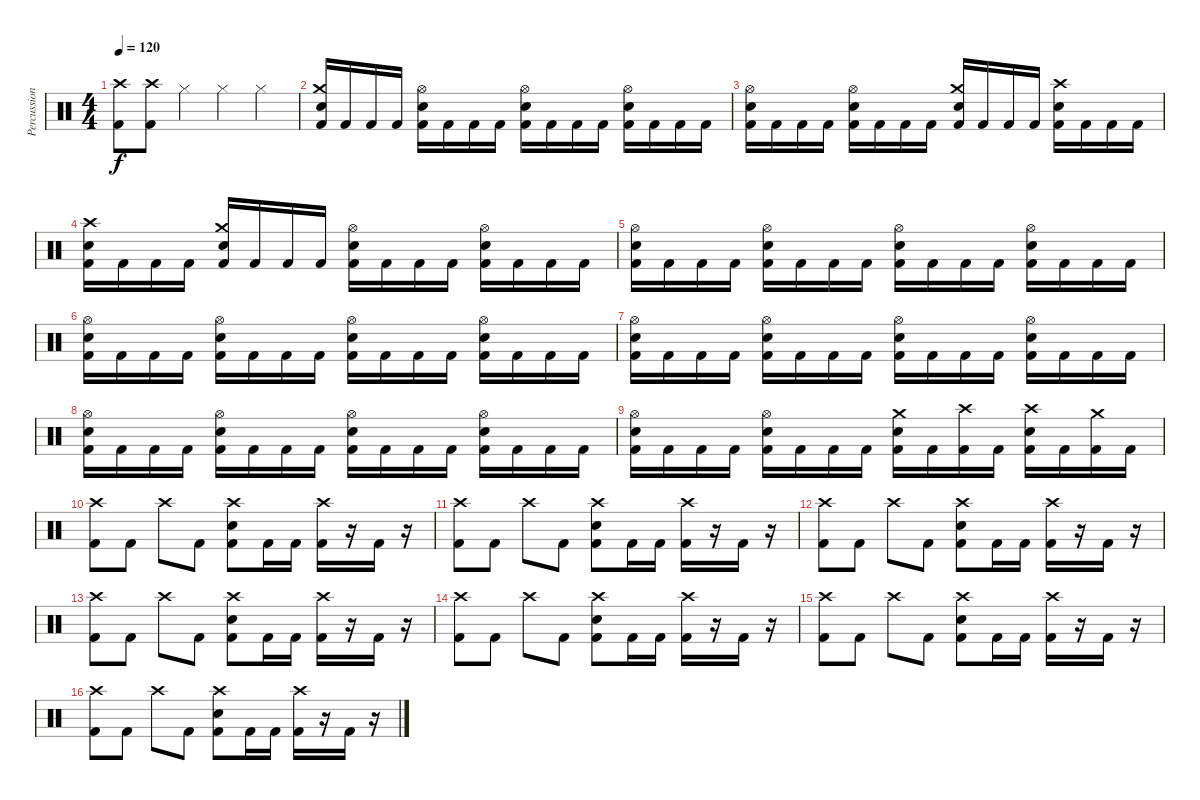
\track ("Percussion" "Percussion") {instrument percussion}
\staff {score}
\articulation defaults
\ts (4 4)
\tempo 120
\clef neutral
\ks c
("Crash high (hit)" "Kick (hit) 2").8{dy f} ("Crash high (hit)" "Kick (hit) 2").8 "Hi-Hat (closed)".4 "Hi-Hat (closed)".4 "Hi-Hat (closed)".4 |
("Crash medium (hit)" "Snare (hit) 2" "Kick (hit) 2").16 "Kick (hit) 2".16 "Kick (hit) 2".16 "Kick (hit) 2".16 ("Hi-Hat (open)" "Snare (hit) 2" "Kick (hit) 2").16 "Kick (hit) 2".16 "Kick (hit) 2".16 "Kick (hit) 2".16 ("Hi-Hat (open)" "Snare (hit) 2" "Kick (hit) 2").16 "Kick (hit) 2".16 "Kick (hit) 2".16 "Kick (hit) 2".16 ("Hi-Hat (open)" "Snare (hit) 2" "Kick (hit) 2").16 "Kick (hit) 2".16 "Kick (hit) 2".16 "Kick (hit) 2".16 |
("Hi-Hat (open)" "Snare (hit) 2" "Kick (hit) 2").16 "Kick (hit) 2".16 "Kick (hit) 2".16 "Kick (hit) 2".16 ("Hi-Hat (open)" "Snare (hit) 2" "Kick (hit) 2").16 "Kick (hit) 2".16 "Kick (hit) 2".16 "Kick (hit) 2".16 ("Crash medium (hit)" "Snare (hit) 2" "Kick (hit) 2").16 "Kick (hit) 2".16 "Kick (hit) 2".16 "Kick (hit) 2".16 ("Crash high (hit)" "Snare (hit) 2" "Kick (hit) 2").16 "Kick (hit) 2".16 "Kick (hit) 2".16 "Kick (hit) 2".16 |
("Crash high (hit)" "Snare (hit) 2" "Kick (hit) 2").16 "Kick (hit) 2".16 "Kick (hit) 2".16 "Kick (hit) 2".16 ("Crash medium (hit)" "Snare (hit) 2" "Kick (hit) 2").16 "Kick (hit) 2".16 "Kick (hit) 2".16 "Kick (hit) 2".16 ("Hi-Hat (open)" "Snare (hit) 2" "Kick (hit) 2").16 "Kick (hit) 2".16 "Kick (hit) 2".16 "Kick (hit) 2".16 ("Hi-Hat (open)" "Snare (hit) 2" "Kick (hit) 2").16 "Kick (hit) 2".16 "Kick (hit) 2".16 "Kick (hit) 2".16 |
("Hi-Hat (open)" "Snare (hit) 2" "Kick (hit) 2").16 "Kick (hit) 2".16 "Kick (hit) 2".16 "Kick (hit) 2".16 ("Hi-Hat (open)" "Snare (hit) 2" "Kick (hit) 2").16 "Kick (hit) 2".16 "Kick (hit) 2".16 "Kick (hit) 2".16 ("Hi-Hat (open)" "Snare (hit) 2" "Kick (hit) 2").16 "Kick (hit) 2".16 "Kick (hit) 2".16 "Kick (hit) 2".16 ("Hi-Hat (open)" "Snare (hit) 2" "Kick (hit) 2").16 "Kick (hit) 2".16 "Kick (hit) 2".16 "Kick (hit) 2".16 |
("Hi-Hat (open)" "Snare (hit) 2" "Kick (hit) 2").16 "Kick (hit) 2".16 "Kick (hit) 2".16 "Kick (hit) 2".16 ("Hi-Hat (open)" "Snare (hit) 2" "Kick (hit) 2").16 "Kick (hit) 2".16 "Kick (hit) 2".16 "Kick (hit) 2".16 ("Hi-Hat (open)" "Snare (hit) 2" "Kick (hit) 2").16 "Kick (hit) 2".16 "Kick (hit) 2".16 "Kick (hit) 2".16 ("Hi-Hat (open)" "Snare (hit) 2" "Kick (hit) 2").16 "Kick (hit) 2".16 "Kick (hit) 2".16 "Kick (hit) 2".16 |
("Hi-Hat (open)" "Snare (hit) 2" "Kick (hit) 2").16 "Kick (hit) 2".16 "Kick (hit) 2".16 "Kick (hit) 2".16 ("Hi-Hat (open)" "Snare (hit) 2" "Kick (hit) 2").16 "Kick (hit) 2".16 "Kick (hit) 2".16 "Kick (hit) 2".16 ("Hi-Hat (open)" "Snare (hit) 2" "Kick (hit) 2").16 "Kick (hit) 2".16 "Kick (hit) 2".16 "Kick (hit) 2".16 ("Hi-Hat (open)" "Snare (hit) 2" "Kick (hit) 2").16 "Kick (hit) 2".16 "Kick (hit) 2".16 "Kick (hit) 2".16 |
("Hi-Hat (open)" "Snare (hit) 2" "Kick (hit) 2").16 "Kick (hit) 2".16 "Kick (hit) 2".16 "Kick (hit) 2".16 ("Hi-Hat (open)" "Snare (hit) 2" "Kick (hit) 2").16 "Kick (hit) 2".16 "Kick (hit) 2".16 "Kick (hit) 2".16 ("Hi-Hat (open)" "Snare (hit) 2" "Kick (hit) 2").16 "Kick (hit) 2".16 "Kick (hit) 2".16 "Kick (hit) 2".16 ("Hi-Hat (open)" "Snare (hit) 2" "Kick (hit) 2").16 "Kick (hit) 2".16 "Kick (hit) 2".16 "Kick (hit) 2".16 |
("Hi-Hat (open)" "Snare (hit) 2" "Kick (hit) 2").16 "Kick (hit) 2".16 "Kick (hit) 2".16 "Kick (hit) 2".16 ("Hi-Hat (open)" "Snare (hit) 2" "Kick (hit) 2").16 "Kick (hit) 2".16 "Kick (hit) 2".16 "Kick (hit) 2".16 ("Crash medium (hit)" "Snare (hit) 2" "Kick (hit) 2").16 "Kick (hit) 2".16 ("Crash high (hit)" "Kick (hit) 2").16 "Kick (hit) 2".16 ("Crash high (hit)" "Snare (hit) 2" "Kick (hit) 2").16 "Kick (hit) 2".16 ("Crash medium (hit)" "Kick (hit) 2").16 "Kick (hit) 2".16 |
("Crash high (hit)" "Kick (hit) 2").8 "Kick (hit) 2".8 "Crash high (hit)".8 "Kick (hit) 2".8 ("Crash high (hit)" "Snare (hit) 2" "Kick (hit) 2").8 "Kick (hit) 2".16 "Kick (hit) 2".16 ("Crash high (hit)" "Kick (hit) 2").16 r.16 "Kick (hit) 2".16 r.16 |
("Crash high (hit)" "Kick (hit) 2").8 "Kick (hit) 2".8 "Crash high (hit)".8 "Kick (hit) 2".8 ("Crash high (hit)" "Snare (hit) 2" "Kick (hit) 2").8 "Kick (hit) 2".16 "Kick (hit) 2".16 ("Crash high (hit)" "Kick (hit) 2").16 r.16 "Kick (hit) 2".16 r.16 |
("Crash high (hit)" "Kick (hit) 2").8 "Kick (hit) 2".8 "Crash high (hit)".8 "Kick (hit) 2".8 ("Crash high (hit)" "Snare (hit) 2" "Kick (hit) 2").8 "Kick (hit) 2".16 "Kick (hit) 2".16 ("Crash high (hit)" "Kick (hit) 2").16 r.16 "Kick (hit) 2".16 r.16 |
("Crash high (hit)" "Kick (hit) 2").8 "Kick (hit) 2".8 "Crash high (hit)".8 "Kick (hit) 2".8 ("Crash high (hit)" "Snare (hit) 2" "Kick (hit) 2").8 "Kick (hit) 2".16 "Kick (hit) 2".16 ("Crash high (hit)" "Kick (hit) 2").16 r.16 "Kick (hit) 2".16 r.16 |
("Crash high (hit)" "Kick (hit) 2").8 "Kick (hit) 2".8 "Crash high (hit)".8 "Kick (hit) 2".8 ("Crash high (hit)" "Snare (hit) 2" "Kick (hit) 2").8 "Kick (hit) 2".16 "Kick (hit) 2".16 ("Crash high (hit)" "Kick (hit) 2").16 r.16 "Kick (hit) 2".16 r.16 |
("Crash high (hit)" "Kick (hit) 2").8 "Kick (hit) 2".8 "Crash high (hit)".8 "Kick (hit) 2".8 ("Crash high (hit)" "Snare (hit) 2" "Kick (hit) 2").8 "Kick (hit) 2".16 "Kick (hit) 2".16 ("Crash high (hit)" "Kick (hit) 2").16 r.16 "Kick (hit) 2".16 r.16 |
("Crash high (hit)" "Kick (hit) 2").8 "Kick (hit) 2".8 "Crash high (hit)".8 "Kick (hit) 2".8 ("Crash high (hit)" "Snare (hit) 2" "Kick (hit) 2").8 "Kick (hit) 2".16 "Kick (hit) 2".16 ("Crash high (hit)" "Kick (hit) 2").16 r.16 "Kick (hit) 2".16 r.16
